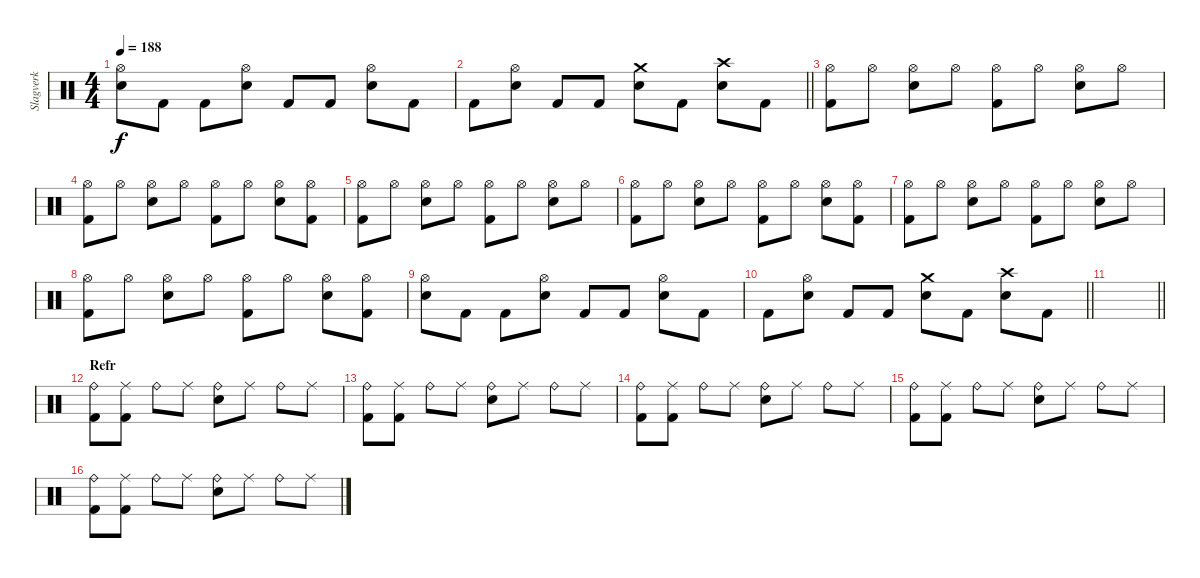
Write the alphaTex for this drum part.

\track ("Slagverk" "Slagverk") {instrument percussion}
\staff {score}
\articulation defaults
\ts (4 4)
\tempo 188
\clef neutral
\ks c
("Hi-Hat (open)" "Electric Snare (hit)").8{dy f} "Kick (hit) 2".8 "Kick (hit) 2".8 ("Hi-Hat (open)" "Electric Snare (hit)").8 "Kick (hit) 2".8 "Kick (hit) 2".8 ("Hi-Hat (open)" "Electric Snare (hit)").8 "Kick (hit) 2".8 |
\barLineRight lightlight "Kick (hit) 2".8
("Hi-Hat (open)" "Electric Snare (hit)").8 "Kick (hit) 2".8 "Kick (hit) 2".8 ("Crash medium (hit)" "Electric Snare (hit)").8 "Kick (hit) 2".8 ("Crash high (hit)" "Electric Snare (hit)").8 "Kick (hit) 2".8 |
("Hi-Hat (open)" "Kick (hit) 2").8 "Hi-Hat (open)".8 ("Hi-Hat (open)" "Electric Snare (hit)").8 "Hi-Hat (open)".8 ("Hi-Hat (open)" "Kick (hit) 2").8 "Hi-Hat (open)".8 ("Hi-Hat (open)" "Electric Snare (hit)").8 "Hi-Hat (open)".8 |
("Hi-Hat (open)" "Kick (hit) 2").8 "Hi-Hat (open)".8 ("Hi-Hat (open)" "Electric Snare (hit)").8 "Hi-Hat (open)".8 ("Hi-Hat (open)" "Kick (hit) 2").8 "Hi-Hat (open)".8 ("Hi-Hat (open)" "Electric Snare (hit)").8 ("Hi-Hat (open)" "Kick (hit) 2").8 |
("Hi-Hat (open)" "Kick (hit) 2").8 "Hi-Hat (open)".8 ("Hi-Hat (open)" "Electric Snare (hit)").8 "Hi-Hat (open)".8 ("Hi-Hat (open)" "Kick (hit) 2").8 "Hi-Hat (open)".8 ("Hi-Hat (open)" "Electric Snare (hit)").8 "Hi-Hat (open)".8 |
("Hi-Hat (open)" "Kick (hit) 2").8 "Hi-Hat (open)".8 ("Hi-Hat (open)" "Electric Snare (hit)").8 "Hi-Hat (open)".8 ("Hi-Hat (open)" "Kick (hit) 2").8 "Hi-Hat (open)".8 ("Hi-Hat (open)" "Electric Snare (hit)").8 ("Hi-Hat (open)" "Kick (hit) 2").8 |
("Hi-Hat (open)" "Kick (hit) 2").8 "Hi-Hat (open)".8 ("Hi-Hat (open)" "Electric Snare (hit)").8 "Hi-Hat (open)".8 ("Hi-Hat (open)" "Kick (hit) 2").8 "Hi-Hat (open)".8 ("Hi-Hat (open)" "Electric Snare (hit)").8 "Hi-Hat (open)".8 |
("Hi-Hat (open)" "Kick (hit) 2").8 "Hi-Hat (open)".8 ("Hi-Hat (open)" "Electric Snare (hit)").8 "Hi-Hat (open)".8 ("Hi-Hat (open)" "Kick (hit) 2").8 "Hi-Hat (open)".8 ("Hi-Hat (open)" "Electric Snare (hit)").8 ("Hi-Hat (open)" "Kick (hit) 2").8 |
("Hi-Hat (open)" "Electric Snare (hit)").8 "Kick (hit) 2".8 "Kick (hit) 2".8 ("Hi-Hat (open)" "Electric Snare (hit)").8 "Kick (hit) 2".8 "Kick (hit) 2".8 ("Hi-Hat (open)" "Electric Snare (hit)").8 "Kick (hit) 2".8 |
\barLineRight lightlight "Kick (hit) 2".8
("Hi-Hat (open)" "Electric Snare (hit)").8 "Kick (hit) 2".8 "Kick (hit) 2".8 ("Crash medium (hit)" "Electric Snare (hit)").8 "Kick (hit) 2".8 ("Crash high (hit)" "Electric Snare (hit)").8 "Kick (hit) 2".8 |
\barLineRight lightlight
|
\section ("" "Refr")
("Ride (bell)" "Kick (hit) 2").8 ("Ride (middle)" "Kick (hit) 2").8 "Ride (bell)".8 "Ride (middle)".8 ("Ride (bell)" "Electric Snare (hit)").8 "Ride (middle)".8 "Ride (bell)".8 "Ride (middle)".8 |
("Ride (bell)" "Kick (hit) 2").8 ("Ride (middle)" "Kick (hit) 2").8 "Ride (bell)".8 "Ride (middle)".8 ("Ride (bell)" "Electric Snare (hit)").8 "Ride (middle)".8 "Ride (bell)".8 "Ride (middle)".8 |
("Ride (bell)" "Kick (hit) 2").8 ("Ride (middle)" "Kick (hit) 2").8 "Ride (bell)".8 "Ride (middle)".8 ("Ride (bell)" "Electric Snare (hit)").8 "Ride (middle)".8 "Ride (bell)".8 "Ride (middle)".8 |
("Ride (bell)" "Kick (hit) 2").8 ("Ride (middle)" "Kick (hit) 2").8 "Ride (bell)".8 "Ride (middle)".8 ("Ride (bell)" "Electric Snare (hit)").8 "Ride (middle)".8 "Ride (bell)".8 "Ride (middle)".8 |
("Ride (bell)" "Kick (hit) 2").8 ("Ride (middle)" "Kick (hit) 2").8 "Ride (bell)".8 "Ride (middle)".8 ("Ride (bell)" "Electric Snare (hit)").8 "Ride (middle)".8 "Ride (bell)".8 "Ride (middle)".8
